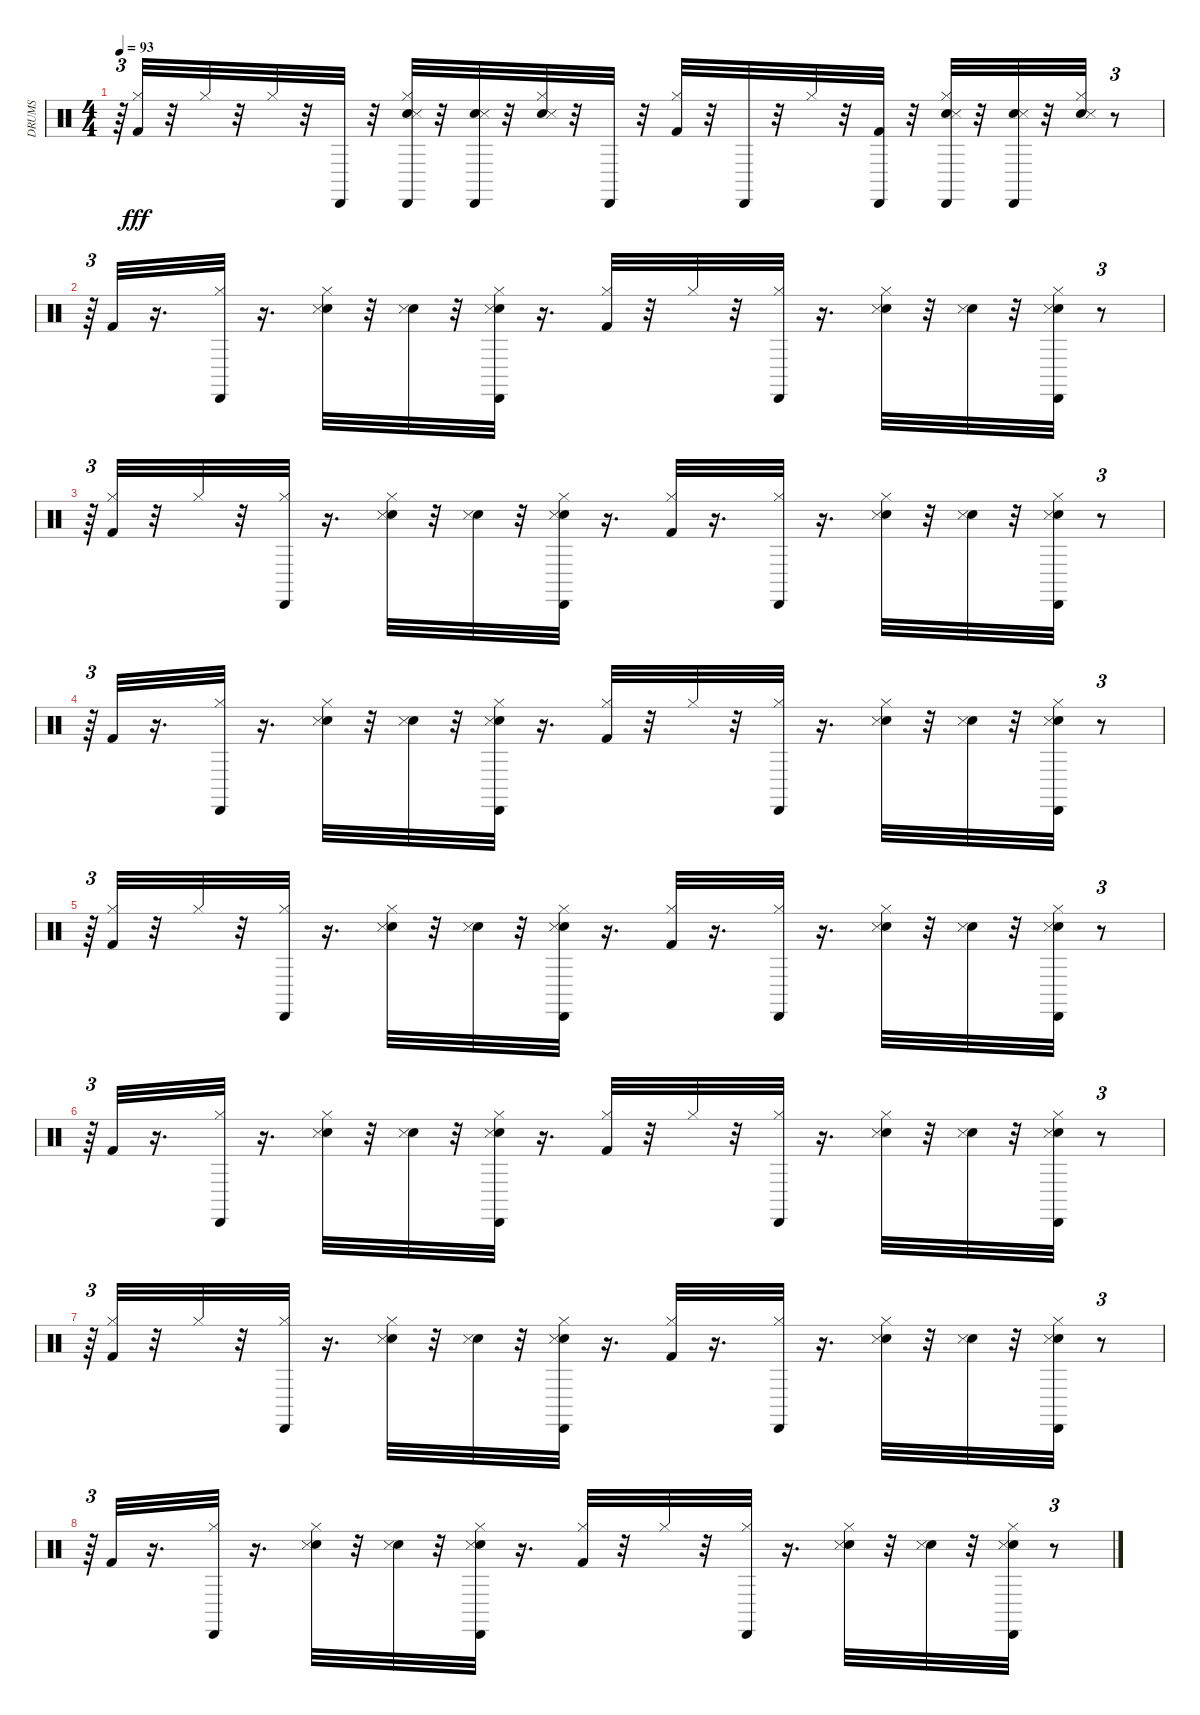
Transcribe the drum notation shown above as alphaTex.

\track ("DRUMS   " "DRUMS   ") {instrument percussion}
\staff {score}
\articulation defaults
\ts (4 4)
\tempo 93
\clef neutral
\ks c
r.64{tu (3 2) dy fff} ("Kick (hit) 2" "Hi-Hat (closed)").32 r.32 "Hi-Hat (closed)".32 r.32 "Hi-Hat (closed)".32 r.32 "Cabasa (hit)".32 r.32 ("Snare (hit) 2" "Hi-Hat (closed)" "Snare (side stick) 3" "Cabasa (hit)").32 r.32 ("Snare (hit) 2" "Snare (side stick) 3" "Cabasa (hit)").32 r.32 ("Snare (hit) 2" "Hi-Hat (closed)" "Snare (side stick) 3").32 r.32 "Cabasa (hit)".32 r.32 ("Kick (hit) 2" "Hi-Hat (closed)").32 r.32 "Cabasa (hit)".32 r.32 "Hi-Hat (closed)".32 r.32 ("Kick (hit) 2" "Cabasa (hit)").32 r.32 ("Snare (hit) 2" "Hi-Hat (closed)" "Snare (side stick) 3" "Cabasa (hit)").32 r.32 ("Snare (hit) 2" "Snare (side stick) 3" "Cabasa (hit)").32 r.32 ("Snare (hit) 2" "Hi-Hat (closed)" "Snare (side stick) 3").32 r.8{tu (3 2)} |
r.64{tu (3 2)} "Kick (hit) 2".32 r.16{d} ("Hi-Hat (closed)" "Cabasa (hit)").32 r.16{d} ("Snare (hit) 2" "Hi-Hat (closed)" "Snare (side stick) 3").32 r.32 ("Snare (hit) 2" "Snare (side stick) 3").32 r.32 ("Snare (hit) 2" "Hi-Hat (closed)" "Snare (side stick) 3" "Cabasa (hit)").32 r.16{d} ("Kick (hit) 2" "Hi-Hat (closed)").32 r.32 "Hi-Hat (closed)".32 r.32 ("Hi-Hat (closed)" "Cabasa (hit)").32 r.16{d} ("Snare (hit) 2" "Hi-Hat (closed)" "Snare (side stick) 3").32 r.32 ("Snare (hit) 2" "Snare (side stick) 3").32 r.32 ("Snare (hit) 2" "Hi-Hat (closed)" "Snare (side stick) 3" "Cabasa (hit)").32 r.8{tu (3 2)} |
r.64{tu (3 2)} ("Kick (hit) 2" "Hi-Hat (closed)").32 r.32 "Hi-Hat (closed)".32 r.32 ("Hi-Hat (closed)" "Cabasa (hit)").32 r.16{d} ("Snare (hit) 2" "Hi-Hat (closed)" "Snare (side stick) 3").32 r.32 ("Snare (hit) 2" "Snare (side stick) 3").32 r.32 ("Snare (hit) 2" "Hi-Hat (closed)" "Snare (side stick) 3" "Cabasa (hit)").32 r.16{d} ("Kick (hit) 2" "Hi-Hat (closed)").32 r.16{d} ("Hi-Hat (closed)" "Cabasa (hit)").32 r.16{d} ("Snare (hit) 2" "Hi-Hat (closed)" "Snare (side stick) 3").32 r.32 ("Snare (hit) 2" "Snare (side stick) 3").32 r.32 ("Snare (hit) 2" "Hi-Hat (closed)" "Snare (side stick) 3" "Cabasa (hit)").32 r.8{tu (3 2)} |
r.64{tu (3 2)} "Kick (hit) 2".32 r.16{d} ("Hi-Hat (closed)" "Cabasa (hit)").32 r.16{d} ("Snare (hit) 2" "Hi-Hat (closed)" "Snare (side stick) 3").32 r.32 ("Snare (hit) 2" "Snare (side stick) 3").32 r.32 ("Snare (hit) 2" "Hi-Hat (closed)" "Snare (side stick) 3" "Cabasa (hit)").32 r.16{d} ("Kick (hit) 2" "Hi-Hat (closed)").32 r.32 "Hi-Hat (closed)".32 r.32 ("Hi-Hat (closed)" "Cabasa (hit)").32 r.16{d} ("Snare (hit) 2" "Hi-Hat (closed)" "Snare (side stick) 3").32 r.32 ("Snare (hit) 2" "Snare (side stick) 3").32 r.32 ("Snare (hit) 2" "Hi-Hat (closed)" "Snare (side stick) 3" "Cabasa (hit)").32 r.8{tu (3 2)} |
r.64{tu (3 2)} ("Kick (hit) 2" "Hi-Hat (closed)").32 r.32 "Hi-Hat (closed)".32 r.32 ("Hi-Hat (closed)" "Cabasa (hit)").32 r.16{d} ("Snare (hit) 2" "Hi-Hat (closed)" "Snare (side stick) 3").32 r.32 ("Snare (hit) 2" "Snare (side stick) 3").32 r.32 ("Snare (hit) 2" "Hi-Hat (closed)" "Snare (side stick) 3" "Cabasa (hit)").32 r.16{d} ("Kick (hit) 2" "Hi-Hat (closed)").32 r.16{d} ("Hi-Hat (closed)" "Cabasa (hit)").32 r.16{d} ("Snare (hit) 2" "Hi-Hat (closed)" "Snare (side stick) 3").32 r.32 ("Snare (hit) 2" "Snare (side stick) 3").32 r.32 ("Snare (hit) 2" "Hi-Hat (closed)" "Snare (side stick) 3" "Cabasa (hit)").32 r.8{tu (3 2)} |
r.64{tu (3 2)} "Kick (hit) 2".32 r.16{d} ("Hi-Hat (closed)" "Cabasa (hit)").32 r.16{d} ("Snare (hit) 2" "Hi-Hat (closed)" "Snare (side stick) 3").32 r.32 ("Snare (hit) 2" "Snare (side stick) 3").32 r.32 ("Snare (hit) 2" "Hi-Hat (closed)" "Snare (side stick) 3" "Cabasa (hit)").32 r.16{d} ("Kick (hit) 2" "Hi-Hat (closed)").32 r.32 "Hi-Hat (closed)".32 r.32 ("Hi-Hat (closed)" "Cabasa (hit)").32 r.16{d} ("Snare (hit) 2" "Hi-Hat (closed)" "Snare (side stick) 3").32 r.32 ("Snare (hit) 2" "Snare (side stick) 3").32 r.32 ("Snare (hit) 2" "Hi-Hat (closed)" "Snare (side stick) 3" "Cabasa (hit)").32 r.8{tu (3 2)} |
r.64{tu (3 2)} ("Kick (hit) 2" "Hi-Hat (closed)").32 r.32 "Hi-Hat (closed)".32 r.32 ("Hi-Hat (closed)" "Cabasa (hit)").32 r.16{d} ("Snare (hit) 2" "Hi-Hat (closed)" "Snare (side stick) 3").32 r.32 ("Snare (hit) 2" "Snare (side stick) 3").32 r.32 ("Snare (hit) 2" "Hi-Hat (closed)" "Snare (side stick) 3" "Cabasa (hit)").32 r.16{d} ("Kick (hit) 2" "Hi-Hat (closed)").32 r.16{d} ("Hi-Hat (closed)" "Cabasa (hit)").32 r.16{d} ("Snare (hit) 2" "Hi-Hat (closed)" "Snare (side stick) 3").32 r.32 ("Snare (hit) 2" "Snare (side stick) 3").32 r.32 ("Snare (hit) 2" "Hi-Hat (closed)" "Snare (side stick) 3" "Cabasa (hit)").32 r.8{tu (3 2)} |
r.64{tu (3 2)} "Kick (hit) 2".32 r.16{d} ("Hi-Hat (closed)" "Cabasa (hit)").32 r.16{d} ("Snare (hit) 2" "Hi-Hat (closed)" "Snare (side stick) 3").32 r.32 ("Snare (hit) 2" "Snare (side stick) 3").32 r.32 ("Snare (hit) 2" "Hi-Hat (closed)" "Snare (side stick) 3" "Cabasa (hit)").32 r.16{d} ("Kick (hit) 2" "Hi-Hat (closed)").32 r.32 "Hi-Hat (closed)".32 r.32 ("Hi-Hat (closed)" "Cabasa (hit)").32 r.16{d} ("Snare (hit) 2" "Hi-Hat (closed)" "Snare (side stick) 3").32 r.32 ("Snare (hit) 2" "Snare (side stick) 3").32 r.32 ("Snare (hit) 2" "Hi-Hat (closed)" "Snare (side stick) 3" "Cabasa (hit)").32 r.8{tu (3 2)}
